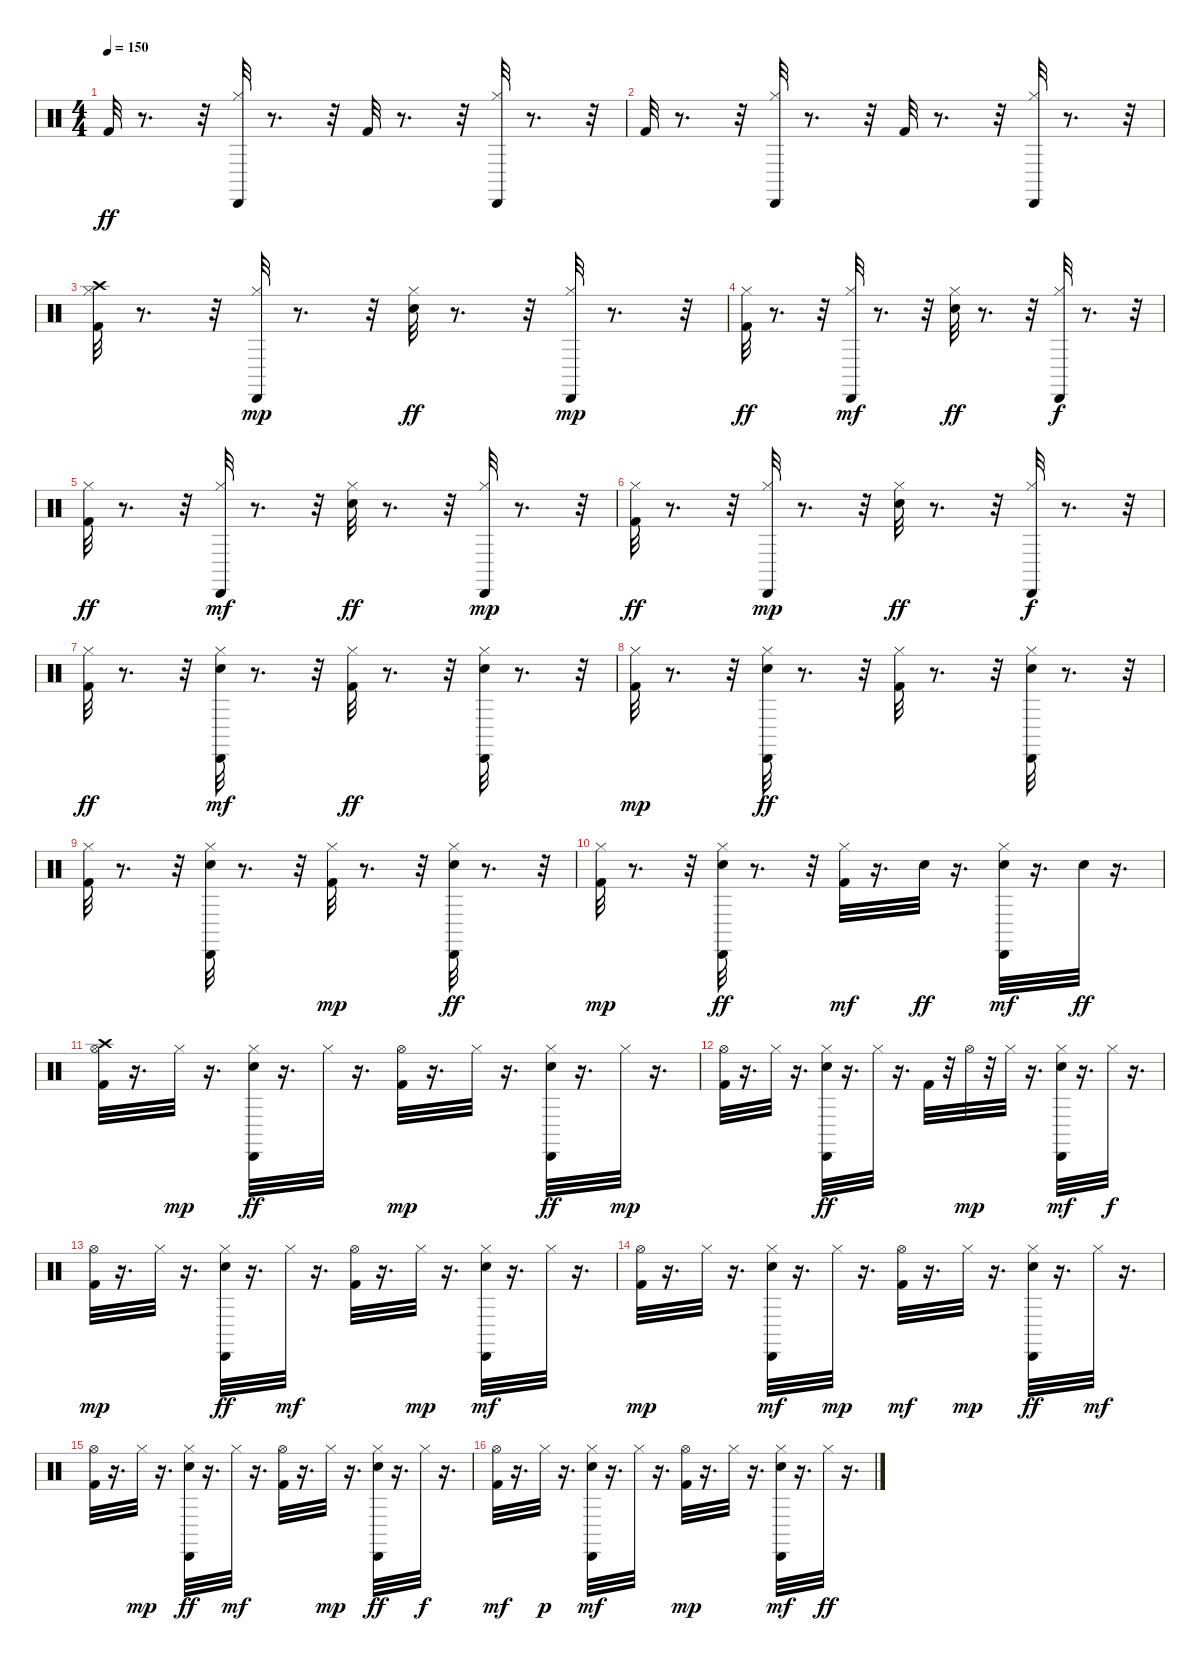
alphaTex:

\track "" {instrument percussion}
\staff {score}
\articulation defaults
\ts (4 4)
\tempo 150
\clef neutral
\ks c "Kick (hit) 2".32{dy ff}
r.8{d} r.32 ("Hi-Hat (closed)" "Cabasa (hit)").32 r.8{d} r.32 "Kick (hit) 2".32 r.8{d} r.32 ("Hi-Hat (closed)" "Cabasa (hit)").32 r.8{d} r.32 |
"Kick (hit) 2".32 r.8{d} r.32 ("Hi-Hat (closed)" "Cabasa (hit)").32 r.8{d} r.32 "Kick (hit) 2".32 r.8{d} r.32 ("Hi-Hat (closed)" "Cabasa (hit)").32 r.8{d} r.32 |
("Kick (hit) 2" "Hi-Hat (closed)" "Crash high (hit)").32 r.8{d} r.32 ("Hi-Hat (closed)" "Cabasa (hit)").32{dy mp} r.8{d} r.32 ("Hi-Hat (closed)" "Snare (hit) 2").32{dy ff} r.8{d} r.32 ("Hi-Hat (closed)" "Cabasa (hit)").32{dy mp} r.8{d} r.32 |
("Kick (hit) 2" "Hi-Hat (closed)").32{dy ff} r.8{d} r.32 ("Hi-Hat (closed)" "Cabasa (hit)").32{dy mf} r.8{d} r.32 ("Hi-Hat (closed)" "Snare (hit) 2").32{dy ff} r.8{d} r.32 ("Hi-Hat (closed)" "Cabasa (hit)").32{dy f} r.8{d} r.32 |
("Kick (hit) 2" "Hi-Hat (closed)").32{dy ff} r.8{d} r.32 ("Hi-Hat (closed)" "Cabasa (hit)").32{dy mf} r.8{d} r.32 ("Hi-Hat (closed)" "Snare (hit) 2").32{dy ff} r.8{d} r.32 ("Hi-Hat (closed)" "Cabasa (hit)").32{dy mp} r.8{d} r.32 |
("Kick (hit) 2" "Hi-Hat (closed)").32{dy ff} r.8{d} r.32 ("Hi-Hat (closed)" "Cabasa (hit)").32{dy mp} r.8{d} r.32 ("Hi-Hat (closed)" "Snare (hit) 2").32{dy ff} r.8{d} r.32 ("Hi-Hat (closed)" "Cabasa (hit)").32{dy f} r.8{d} r.32 |
("Kick (hit) 2" "Hi-Hat (closed)").32{dy ff} r.8{d} r.32 ("Hi-Hat (closed)" "Snare (hit) 2" "Cabasa (hit)").32{dy mf} r.8{d} r.32 ("Kick (hit) 2" "Hi-Hat (closed)").32{dy ff} r.8{d} r.32 ("Hi-Hat (closed)" "Snare (hit) 2" "Cabasa (hit)").32 r.8{d} r.32 |
("Kick (hit) 2" "Hi-Hat (closed)").32{dy mp} r.8{d} r.32 ("Hi-Hat (closed)" "Snare (hit) 2" "Cabasa (hit)").32{dy ff} r.8{d} r.32 ("Kick (hit) 2" "Hi-Hat (closed)").32 r.8{d} r.32 ("Hi-Hat (closed)" "Snare (hit) 2" "Cabasa (hit)").32 r.8{d} r.32 |
("Kick (hit) 2" "Hi-Hat (closed)").32 r.8{d} r.32 ("Hi-Hat (closed)" "Snare (hit) 2" "Cabasa (hit)").32 r.8{d} r.32 ("Kick (hit) 2" "Hi-Hat (closed)").32{dy mp} r.8{d} r.32 ("Hi-Hat (closed)" "Snare (hit) 2" "Cabasa (hit)").32{dy ff} r.8{d} r.32 |
("Kick (hit) 2" "Hi-Hat (closed)").32{dy mp} r.8{d} r.32 ("Hi-Hat (closed)" "Snare (hit) 2" "Cabasa (hit)").32{dy ff} r.8{d} r.32 ("Kick (hit) 2" "Hi-Hat (closed)").32{dy mf} r.16{d} "Snare (hit) 2".32{dy ff} r.16{d} ("Hi-Hat (closed)" "Snare (hit) 2" "Cabasa (hit)").32{dy mf} r.16{d} "Snare (hit) 2".32{dy ff} r.16{d} |
("Kick (hit) 2" "Hi-Hat (open)" "Crash high (hit)").32 r.16{d} "Hi-Hat (closed)".32{dy mp} r.16{d} ("Hi-Hat (closed)" "Snare (hit) 2" "Cabasa (hit)").32{dy ff} r.16{d} "Hi-Hat (closed)".32 r.16{d} ("Kick (hit) 2" "Hi-Hat (open)").32{dy mp} r.16{d} "Hi-Hat (closed)".32 r.16{d} ("Hi-Hat (closed)" "Snare (hit) 2" "Cabasa (hit)").32{dy ff} r.16{d} "Hi-Hat (closed)".32{dy mp} r.16{d} |
("Kick (hit) 2" "Hi-Hat (open)").32 r.16{d} "Hi-Hat (closed)".32 r.16{d} ("Hi-Hat (closed)" "Snare (hit) 2" "Cabasa (hit)").32{dy ff} r.16{d} "Hi-Hat (closed)".32 r.16{d} "Kick (hit) 2".32 r.32 "Hi-Hat (open)".32{dy mp} r.32 "Hi-Hat (closed)".32 r.16{d} ("Hi-Hat (closed)" "Snare (hit) 2" "Cabasa (hit)").32{dy mf} r.16{d} "Hi-Hat (closed)".32{dy f} r.16{d} |
("Kick (hit) 2" "Hi-Hat (open)").32{dy mp} r.16{d} "Hi-Hat (closed)".32 r.16{d} ("Hi-Hat (closed)" "Snare (hit) 2" "Cabasa (hit)").32{dy ff} r.16{d} "Hi-Hat (closed)".32{dy mf} r.16{d} ("Kick (hit) 2" "Hi-Hat (open)").32 r.16{d} "Hi-Hat (closed)".32{dy mp} r.16{d} ("Hi-Hat (closed)" "Snare (hit) 2" "Cabasa (hit)").32{dy mf} r.16{d} "Hi-Hat (closed)".32 r.16{d} |
("Kick (hit) 2" "Hi-Hat (open)").32{dy mp} r.16{d} "Hi-Hat (closed)".32 r.16{d} ("Hi-Hat (closed)" "Snare (hit) 2" "Cabasa (hit)").32{dy mf} r.16{d} "Hi-Hat (closed)".32{dy mp} r.16{d} ("Kick (hit) 2" "Hi-Hat (open)").32{dy mf} r.16{d} "Hi-Hat (closed)".32{dy mp} r.16{d} ("Hi-Hat (closed)" "Snare (hit) 2" "Cabasa (hit)").32{dy ff} r.16{d} "Hi-Hat (closed)".32{dy mf} r.16{d} |
("Kick (hit) 2" "Hi-Hat (open)").32 r.16{d} "Hi-Hat (closed)".32{dy mp} r.16{d} ("Hi-Hat (closed)" "Snare (hit) 2" "Cabasa (hit)").32{dy ff} r.16{d} "Hi-Hat (closed)".32{dy mf} r.16{d} ("Kick (hit) 2" "Hi-Hat (open)").32 r.16{d} "Hi-Hat (closed)".32{dy mp} r.16{d} ("Hi-Hat (closed)" "Snare (hit) 2" "Cabasa (hit)").32{dy ff} r.16{d} "Hi-Hat (closed)".32{dy f} r.16{d} |
("Kick (hit) 2" "Hi-Hat (open)").32{dy mf} r.16{d} "Hi-Hat (closed)".32{dy p} r.16{d} ("Hi-Hat (closed)" "Snare (hit) 2" "Cabasa (hit)").32{dy mf} r.16{d} "Hi-Hat (closed)".32 r.16{d} ("Kick (hit) 2" "Hi-Hat (open)").32{dy mp} r.16{d} "Hi-Hat (closed)".32 r.16{d} ("Hi-Hat (closed)" "Snare (hit) 2" "Cabasa (hit)").32{dy mf} r.16{d} "Hi-Hat (closed)".32{dy ff} r.16{d}
